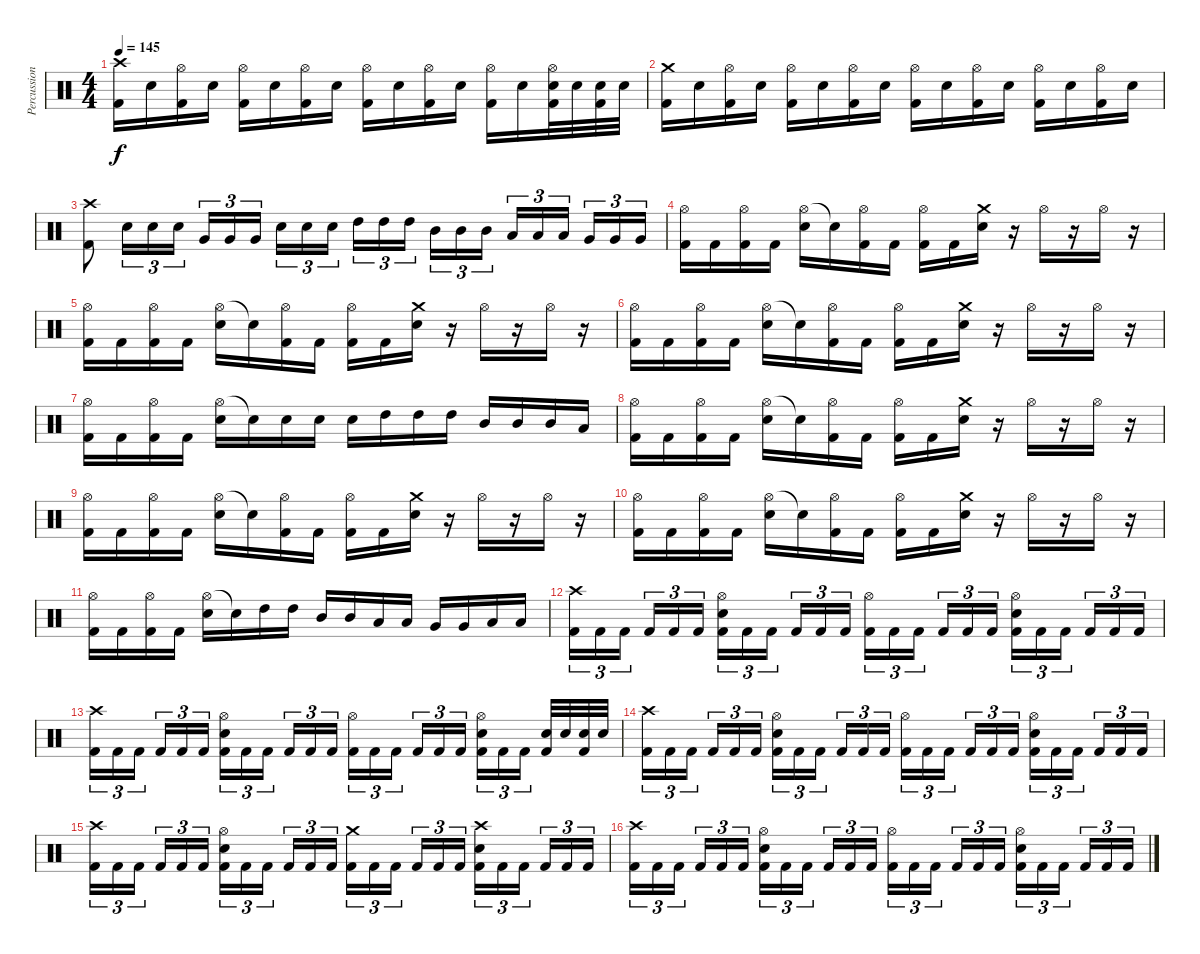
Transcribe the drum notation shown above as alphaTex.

\track ("Percussions" "Percussion") {instrument percussion}
\staff {score}
\articulation defaults
\ts (4 4)
\tempo 145
\clef neutral
\ks c
("Crash high (hit)" "Kick (hit) 2").16{dy f} "Electric Snare (hit)".16 ("Hi-Hat (open)" "Kick (hit) 2").16 "Electric Snare (hit)".16 ("Hi-Hat (open)" "Kick (hit) 2").16 "Electric Snare (hit)".16 ("Hi-Hat (open)" "Kick (hit) 2").16 "Electric Snare (hit)".16 ("Hi-Hat (open)" "Kick (hit) 2").16 "Electric Snare (hit)".16 ("Hi-Hat (open)" "Kick (hit) 2").16 "Electric Snare (hit)".16 ("Hi-Hat (open)" "Kick (hit) 2").16 "Electric Snare (hit)".16 ("Hi-Hat (open)" "Electric Snare (hit)" "Kick (hit) 2").32 "Electric Snare (hit)".32 ("Electric Snare (hit)" "Kick (hit) 2").32 "Electric Snare (hit)".32 |
("Crash medium (hit)" "Kick (hit) 2").16 "Electric Snare (hit)".16 ("Hi-Hat (open)" "Kick (hit) 2").16 "Electric Snare (hit)".16 ("Hi-Hat (open)" "Kick (hit) 2").16 "Electric Snare (hit)".16 ("Hi-Hat (open)" "Kick (hit) 2").16 "Electric Snare (hit)".16 ("Hi-Hat (open)" "Kick (hit) 2").16 "Electric Snare (hit)".16 ("Hi-Hat (open)" "Kick (hit) 2").16 "Electric Snare (hit)".16 ("Hi-Hat (open)" "Kick (hit) 2").16 "Electric Snare (hit)".16 ("Hi-Hat (open)" "Kick (hit) 2").16 "Electric Snare (hit)".16 |
("Crash high (hit)" "Kick (hit) 2").8 "Electric Snare (hit)".16{tu (3 2)} "Electric Snare (hit)".16{tu (3 2)} "Electric Snare (hit)".16{tu (3 2)} "Very Low Tom (hit)".16{tu (3 2)} "Very Low Tom (hit)".16{tu (3 2)} "Very Low Tom (hit)".16{tu (3 2) beam splitsecondary} "Electric Snare (hit)".16{tu (3 2)} "Electric Snare (hit)".16{tu (3 2)} "Electric Snare (hit)".16{tu (3 2)} "High Tom (hit)".16{tu (3 2)} "High Tom (hit)".16{tu (3 2)} "High Tom (hit)".16{tu (3 2) beam splitsecondary} "Mid Tom (hit)".16{tu (3 2)} "Mid Tom (hit)".16{tu (3 2)} "Mid Tom (hit)".16{tu (3 2)} "Low Tom (hit)".16{tu (3 2)} "Low Tom (hit)".16{tu (3 2)} "Low Tom (hit)".16{tu (3 2) beam splitsecondary} "Very Low Tom (hit)".16{tu (3 2)} "Very Low Tom (hit)".16{tu (3 2)} "Very Low Tom (hit)".16{tu (3 2)} |
("Hi-Hat (open)" "Kick (hit) 2").16 "Kick (hit) 2".16 ("Hi-Hat (open)" "Kick (hit) 2").16 "Kick (hit) 2".16 ("Hi-Hat (open)" "Electric Snare (hit)").16 "Snare (hit)"{t}.16 ("Hi-Hat (open)" "Kick (hit) 2").16 "Kick (hit) 2".16 ("Hi-Hat (open)" "Kick (hit) 2").16 "Kick (hit) 2".16 ("Crash medium (hit)" "Electric Snare (hit)").16 r.16 "Hi-Hat (open)".16 r.16 "Hi-Hat (open)".16 r.16 |
("Hi-Hat (open)" "Kick (hit) 2").16 "Kick (hit) 2".16 ("Hi-Hat (open)" "Kick (hit) 2").16 "Kick (hit) 2".16 ("Hi-Hat (open)" "Electric Snare (hit)").16 "Snare (hit)"{t}.16 ("Hi-Hat (open)" "Kick (hit) 2").16 "Kick (hit) 2".16 ("Hi-Hat (open)" "Kick (hit) 2").16 "Kick (hit) 2".16 ("Crash medium (hit)" "Electric Snare (hit)").16 r.16 "Hi-Hat (open)".16 r.16 "Hi-Hat (open)".16 r.16 |
("Hi-Hat (open)" "Kick (hit) 2").16 "Kick (hit) 2".16 ("Hi-Hat (open)" "Kick (hit) 2").16 "Kick (hit) 2".16 ("Hi-Hat (open)" "Electric Snare (hit)").16 "Snare (hit)"{t}.16 ("Hi-Hat (open)" "Kick (hit) 2").16 "Kick (hit) 2".16 ("Hi-Hat (open)" "Kick (hit) 2").16 "Kick (hit) 2".16 ("Crash medium (hit)" "Electric Snare (hit)").16 r.16 "Hi-Hat (open)".16 r.16 "Hi-Hat (open)".16 r.16 |
("Hi-Hat (open)" "Kick (hit) 2").16 "Kick (hit) 2".16 ("Hi-Hat (open)" "Kick (hit) 2").16 "Kick (hit) 2".16 ("Hi-Hat (open)" "Electric Snare (hit)").16 "Snare (hit)"{t}.16 "Electric Snare (hit)".16 "Electric Snare (hit)".16 "Electric Snare (hit)".16 "High Tom (hit)".16 "High Tom (hit)".16 "High Tom (hit)".16 "Mid Tom (hit)".16 "Mid Tom (hit)".16 "Mid Tom (hit)".16 "Low Tom (hit)".16 |
("Hi-Hat (open)" "Kick (hit) 2").16 "Kick (hit) 2".16 ("Hi-Hat (open)" "Kick (hit) 2").16 "Kick (hit) 2".16 ("Hi-Hat (open)" "Electric Snare (hit)").16 "Snare (hit)"{t}.16 ("Hi-Hat (open)" "Kick (hit) 2").16 "Kick (hit) 2".16 ("Hi-Hat (open)" "Kick (hit) 2").16 "Kick (hit) 2".16 ("Crash medium (hit)" "Electric Snare (hit)").16 r.16 "Hi-Hat (open)".16 r.16 "Hi-Hat (open)".16 r.16 |
("Hi-Hat (open)" "Kick (hit) 2").16 "Kick (hit) 2".16 ("Hi-Hat (open)" "Kick (hit) 2").16 "Kick (hit) 2".16 ("Hi-Hat (open)" "Electric Snare (hit)").16 "Snare (hit)"{t}.16 ("Hi-Hat (open)" "Kick (hit) 2").16 "Kick (hit) 2".16 ("Hi-Hat (open)" "Kick (hit) 2").16 "Kick (hit) 2".16 ("Crash medium (hit)" "Electric Snare (hit)").16 r.16 "Hi-Hat (open)".16 r.16 "Hi-Hat (open)".16 r.16 |
("Hi-Hat (open)" "Kick (hit) 2").16 "Kick (hit) 2".16 ("Hi-Hat (open)" "Kick (hit) 2").16 "Kick (hit) 2".16 ("Hi-Hat (open)" "Electric Snare (hit)").16 "Snare (hit)"{t}.16 ("Hi-Hat (open)" "Kick (hit) 2").16 "Kick (hit) 2".16 ("Hi-Hat (open)" "Kick (hit) 2").16 "Kick (hit) 2".16 ("Crash medium (hit)" "Electric Snare (hit)").16 r.16 "Hi-Hat (open)".16 r.16 "Hi-Hat (open)".16 r.16 |
("Hi-Hat (open)" "Kick (hit) 2").16 "Kick (hit) 2".16 ("Hi-Hat (open)" "Kick (hit) 2").16 "Kick (hit) 2".16 ("Hi-Hat (open)" "Electric Snare (hit)").16 "Snare (hit)"{t}.16 "High Tom (hit)".16 "High Tom (hit)".16 "Mid Tom (hit)".16 "Mid Tom (hit)".16 "Low Tom (hit)".16 "Low Tom (hit)".16 "Very Low Tom (hit)".16 "Very Low Tom (hit)".16 "Low Floor Tom (hit)".16 "Low Floor Tom (hit)".16 |
("Crash high (hit)" "Kick (hit) 2").16{tu (3 2)} "Kick (hit) 2".16{tu (3 2)} "Kick (hit) 2".16{tu (3 2) beam splitsecondary} "Kick (hit) 2".16{tu (3 2)} "Kick (hit) 2".16{tu (3 2)} "Kick (hit) 2".16{tu (3 2)} ("Hi-Hat (open)" "Electric Snare (hit)" "Kick (hit) 2").16{tu (3 2)} "Kick (hit) 2".16{tu (3 2)} "Kick (hit) 2".16{tu (3 2) beam splitsecondary} "Kick (hit) 2".16{tu (3 2)} "Kick (hit) 2".16{tu (3 2)} "Kick (hit) 2".16{tu (3 2)} ("Hi-Hat (open)" "Kick (hit) 2").16{tu (3 2)} "Kick (hit) 2".16{tu (3 2)} "Kick (hit) 2".16{tu (3 2) beam splitsecondary} "Kick (hit) 2".16{tu (3 2)} "Kick (hit) 2".16{tu (3 2)} "Kick (hit) 2".16{tu (3 2)} ("Hi-Hat (open)" "Electric Snare (hit)" "Kick (hit) 2").16{tu (3 2)} "Kick (hit) 2".16{tu (3 2)} "Kick (hit) 2".16{tu (3 2) beam splitsecondary} "Kick (hit) 2".16{tu (3 2)} "Kick (hit) 2".16{tu (3 2)} "Kick (hit) 2".16{tu (3 2)} |
("Crash high (hit)" "Kick (hit) 2").16{tu (3 2)} "Kick (hit) 2".16{tu (3 2)} "Kick (hit) 2".16{tu (3 2) beam splitsecondary} "Kick (hit) 2".16{tu (3 2)} "Kick (hit) 2".16{tu (3 2)} "Kick (hit) 2".16{tu (3 2)} ("Hi-Hat (open)" "Electric Snare (hit)" "Kick (hit) 2").16{tu (3 2)} "Kick (hit) 2".16{tu (3 2)} "Kick (hit) 2".16{tu (3 2) beam splitsecondary} "Kick (hit) 2".16{tu (3 2)} "Kick (hit) 2".16{tu (3 2)} "Kick (hit) 2".16{tu (3 2)} ("Hi-Hat (open)" "Kick (hit) 2").16{tu (3 2)} "Kick (hit) 2".16{tu (3 2)} "Kick (hit) 2".16{tu (3 2) beam splitsecondary} "Kick (hit) 2".16{tu (3 2)} "Kick (hit) 2".16{tu (3 2)} "Kick (hit) 2".16{tu (3 2)} ("Hi-Hat (open)" "Electric Snare (hit)" "Kick (hit) 2").16{tu (3 2)} "Kick (hit) 2".16{tu (3 2)} "Kick (hit) 2".16{tu (3 2) beam splitsecondary} ("Electric Snare (hit)" "Kick (hit) 2").32 "Electric Snare (hit)".32 ("Electric Snare (hit)" "Kick (hit) 2").32 "Electric Snare (hit)".32 |
("Crash high (hit)" "Kick (hit) 2").16{tu (3 2)} "Kick (hit) 2".16{tu (3 2)} "Kick (hit) 2".16{tu (3 2) beam splitsecondary} "Kick (hit) 2".16{tu (3 2)} "Kick (hit) 2".16{tu (3 2)} "Kick (hit) 2".16{tu (3 2)} ("Hi-Hat (open)" "Electric Snare (hit)" "Kick (hit) 2").16{tu (3 2)} "Kick (hit) 2".16{tu (3 2)} "Kick (hit) 2".16{tu (3 2) beam splitsecondary} "Kick (hit) 2".16{tu (3 2)} "Kick (hit) 2".16{tu (3 2)} "Kick (hit) 2".16{tu (3 2)} ("Hi-Hat (open)" "Kick (hit) 2").16{tu (3 2)} "Kick (hit) 2".16{tu (3 2)} "Kick (hit) 2".16{tu (3 2) beam splitsecondary} "Kick (hit) 2".16{tu (3 2)} "Kick (hit) 2".16{tu (3 2)} "Kick (hit) 2".16{tu (3 2)} ("Hi-Hat (open)" "Electric Snare (hit)" "Kick (hit) 2").16{tu (3 2)} "Kick (hit) 2".16{tu (3 2)} "Kick (hit) 2".16{tu (3 2) beam splitsecondary} "Kick (hit) 2".16{tu (3 2)} "Kick (hit) 2".16{tu (3 2)} "Kick (hit) 2".16{tu (3 2)} |
("Crash high (hit)" "Kick (hit) 2").16{tu (3 2)} "Kick (hit) 2".16{tu (3 2)} "Kick (hit) 2".16{tu (3 2) beam splitsecondary} "Kick (hit) 2".16{tu (3 2)} "Kick (hit) 2".16{tu (3 2)} "Kick (hit) 2".16{tu (3 2)} ("Hi-Hat (open)" "Electric Snare (hit)" "Kick (hit) 2").16{tu (3 2)} "Kick (hit) 2".16{tu (3 2)} "Kick (hit) 2".16{tu (3 2) beam splitsecondary} "Kick (hit) 2".16{tu (3 2)} "Kick (hit) 2".16{tu (3 2)} "Kick (hit) 2".16{tu (3 2)} ("Crash medium (hit)" "Kick (hit) 2").16{tu (3 2)} "Kick (hit) 2".16{tu (3 2)} "Kick (hit) 2".16{tu (3 2) beam splitsecondary} "Kick (hit) 2".16{tu (3 2)} "Kick (hit) 2".16{tu (3 2)} "Kick (hit) 2".16{tu (3 2)} ("Crash high (hit)" "Electric Snare (hit)" "Kick (hit) 2").16{tu (3 2)} "Kick (hit) 2".16{tu (3 2)} "Kick (hit) 2".16{tu (3 2) beam splitsecondary} "Kick (hit) 2".16{tu (3 2)} "Kick (hit) 2".16{tu (3 2)} "Kick (hit) 2".16{tu (3 2)} |
("Crash high (hit)" "Kick (hit) 2").16{tu (3 2)} "Kick (hit) 2".16{tu (3 2)} "Kick (hit) 2".16{tu (3 2) beam splitsecondary} "Kick (hit) 2".16{tu (3 2)} "Kick (hit) 2".16{tu (3 2)} "Kick (hit) 2".16{tu (3 2)} ("Hi-Hat (open)" "Electric Snare (hit)" "Kick (hit) 2").16{tu (3 2)} "Kick (hit) 2".16{tu (3 2)} "Kick (hit) 2".16{tu (3 2) beam splitsecondary} "Kick (hit) 2".16{tu (3 2)} "Kick (hit) 2".16{tu (3 2)} "Kick (hit) 2".16{tu (3 2)} ("Hi-Hat (open)" "Kick (hit) 2").16{tu (3 2)} "Kick (hit) 2".16{tu (3 2)} "Kick (hit) 2".16{tu (3 2) beam splitsecondary} "Kick (hit) 2".16{tu (3 2)} "Kick (hit) 2".16{tu (3 2)} "Kick (hit) 2".16{tu (3 2)} ("Hi-Hat (open)" "Electric Snare (hit)" "Kick (hit) 2").16{tu (3 2)} "Kick (hit) 2".16{tu (3 2)} "Kick (hit) 2".16{tu (3 2) beam splitsecondary} "Kick (hit) 2".16{tu (3 2)} "Kick (hit) 2".16{tu (3 2)} "Kick (hit) 2".16{tu (3 2)}
